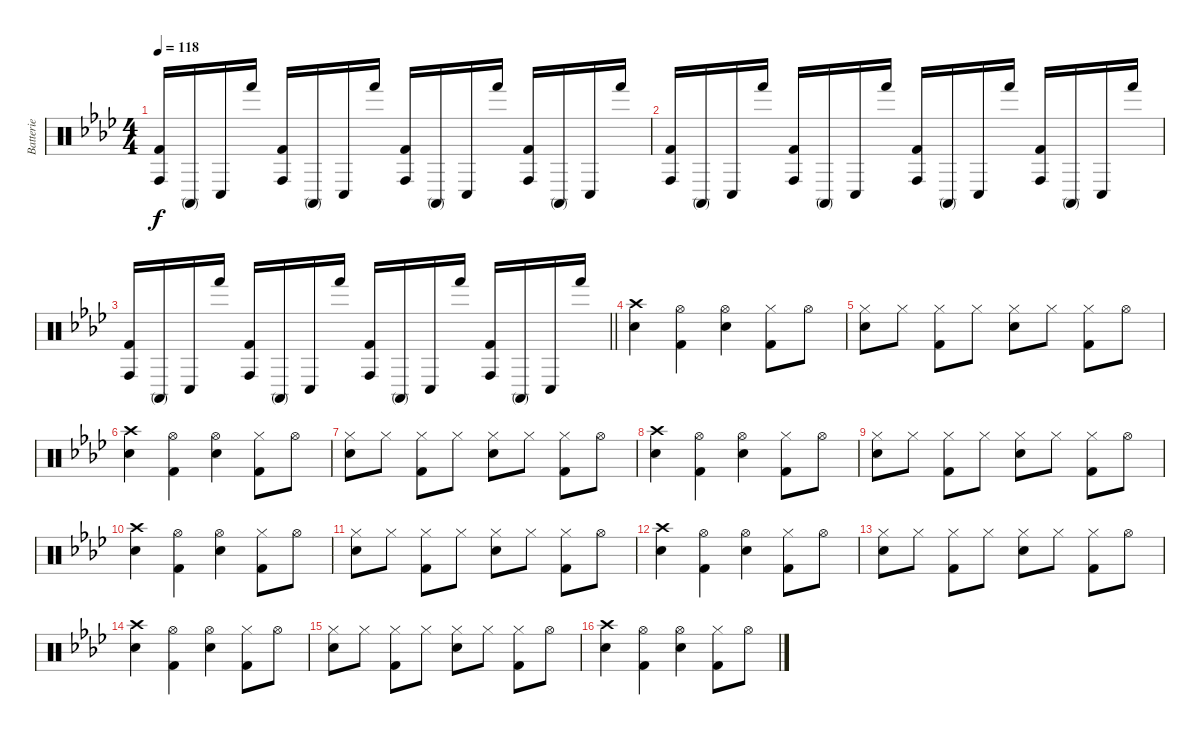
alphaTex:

\track ("Batterie" "Batterie") {instrument percussion}
\staff {score}
\articulation defaults
\ts (4 4)
\tempo 118
\clef neutral
\ks ab
("Conga high (hit)" "Kick (hit) 2").16{dy f} "Conga high (mute)".16 "Conga low (hit)".16 "Hand (hit)".16 ("Conga high (hit)" "Kick (hit) 2").16 "Conga high (mute)".16 "Conga low (hit)".16 "Hand (hit)".16 ("Conga high (hit)" "Kick (hit) 2").16 "Conga high (mute)".16 "Conga low (hit)".16 "Hand (hit)".16 ("Conga high (hit)" "Kick (hit) 2").16 "Conga high (mute)".16 "Conga low (hit)".16 "Hand (hit)".16 |
("Conga high (hit)" "Kick (hit) 2").16 "Conga high (mute)".16 "Conga low (hit)".16 "Hand (hit)".16 ("Conga high (hit)" "Kick (hit) 2").16 "Conga high (mute)".16 "Conga low (hit)".16 "Hand (hit)".16 ("Conga high (hit)" "Kick (hit) 2").16 "Conga high (mute)".16 "Conga low (hit)".16 "Hand (hit)".16 ("Conga high (hit)" "Kick (hit) 2").16 "Conga high (mute)".16 "Conga low (hit)".16 "Hand (hit)".16 |
\barLineRight lightlight
("Conga high (hit)" "Kick (hit) 2").16 "Conga high (mute)".16 "Conga low (hit)".16 "Hand (hit)".16 ("Conga high (hit)" "Kick (hit) 2").16 "Conga high (mute)".16 "Conga low (hit)".16 "Hand (hit)".16 ("Conga high (hit)" "Kick (hit) 2").16 "Conga high (mute)".16 "Conga low (hit)".16 "Hand (hit)".16 ("Conga high (hit)" "Kick (hit) 2").16 "Conga high (mute)".16 "Conga low (hit)".16 "Hand (hit)".16 |
("Crash high (hit)" "Snare (hit) 2").4 ("Hi-Hat (open)" "Kick (hit) 2").4 ("Hi-Hat (open)" "Snare (hit) 2").4 ("Hi-Hat (closed)" "Kick (hit) 2").8 "Hi-Hat (open)".8 |
("Hi-Hat (closed)" "Snare (hit) 2").8 "Hi-Hat (closed)".8 ("Hi-Hat (closed)" "Kick (hit) 2").8 "Hi-Hat (closed)".8 ("Hi-Hat (closed)" "Snare (hit) 2").8 "Hi-Hat (closed)".8 ("Hi-Hat (closed)" "Kick (hit) 2").8 "Hi-Hat (open)".8 |
("Crash high (hit)" "Snare (hit) 2").4 ("Hi-Hat (open)" "Kick (hit) 2").4 ("Hi-Hat (open)" "Snare (hit) 2").4 ("Hi-Hat (closed)" "Kick (hit) 2").8 "Hi-Hat (open)".8 |
("Hi-Hat (closed)" "Snare (hit) 2").8 "Hi-Hat (closed)".8 ("Hi-Hat (closed)" "Kick (hit) 2").8 "Hi-Hat (closed)".8 ("Hi-Hat (closed)" "Snare (hit) 2").8 "Hi-Hat (closed)".8 ("Hi-Hat (closed)" "Kick (hit) 2").8 "Hi-Hat (open)".8 |
("Crash high (hit)" "Snare (hit) 2").4 ("Hi-Hat (open)" "Kick (hit) 2").4 ("Hi-Hat (open)" "Snare (hit) 2").4 ("Hi-Hat (closed)" "Kick (hit) 2").8 "Hi-Hat (open)".8 |
("Hi-Hat (closed)" "Snare (hit) 2").8 "Hi-Hat (closed)".8 ("Hi-Hat (closed)" "Kick (hit) 2").8 "Hi-Hat (closed)".8 ("Hi-Hat (closed)" "Snare (hit) 2").8 "Hi-Hat (closed)".8 ("Hi-Hat (closed)" "Kick (hit) 2").8 "Hi-Hat (open)".8 |
("Crash high (hit)" "Snare (hit) 2").4 ("Hi-Hat (open)" "Kick (hit) 2").4 ("Hi-Hat (open)" "Snare (hit) 2").4 ("Hi-Hat (closed)" "Kick (hit) 2").8 "Hi-Hat (open)".8 |
("Hi-Hat (closed)" "Snare (hit) 2").8 "Hi-Hat (closed)".8 ("Hi-Hat (closed)" "Kick (hit) 2").8 "Hi-Hat (closed)".8 ("Hi-Hat (closed)" "Snare (hit) 2").8 "Hi-Hat (closed)".8 ("Hi-Hat (closed)" "Kick (hit) 2").8 "Hi-Hat (open)".8 |
("Crash high (hit)" "Snare (hit) 2").4 ("Hi-Hat (open)" "Kick (hit) 2").4 ("Hi-Hat (open)" "Snare (hit) 2").4 ("Hi-Hat (closed)" "Kick (hit) 2").8 "Hi-Hat (open)".8 |
("Hi-Hat (closed)" "Snare (hit) 2").8 "Hi-Hat (closed)".8 ("Hi-Hat (closed)" "Kick (hit) 2").8 "Hi-Hat (closed)".8 ("Hi-Hat (closed)" "Snare (hit) 2").8 "Hi-Hat (closed)".8 ("Hi-Hat (closed)" "Kick (hit) 2").8 "Hi-Hat (open)".8 |
("Crash high (hit)" "Snare (hit) 2").4 ("Hi-Hat (open)" "Kick (hit) 2").4 ("Hi-Hat (open)" "Snare (hit) 2").4 ("Hi-Hat (closed)" "Kick (hit) 2").8 "Hi-Hat (open)".8 |
("Hi-Hat (closed)" "Snare (hit) 2").8 "Hi-Hat (closed)".8 ("Hi-Hat (closed)" "Kick (hit) 2").8 "Hi-Hat (closed)".8 ("Hi-Hat (closed)" "Snare (hit) 2").8 "Hi-Hat (closed)".8 ("Hi-Hat (closed)" "Kick (hit) 2").8 "Hi-Hat (open)".8 |
("Crash high (hit)" "Snare (hit) 2").4 ("Hi-Hat (open)" "Kick (hit) 2").4 ("Hi-Hat (open)" "Snare (hit) 2").4 ("Hi-Hat (closed)" "Kick (hit) 2").8 "Hi-Hat (open)".8
